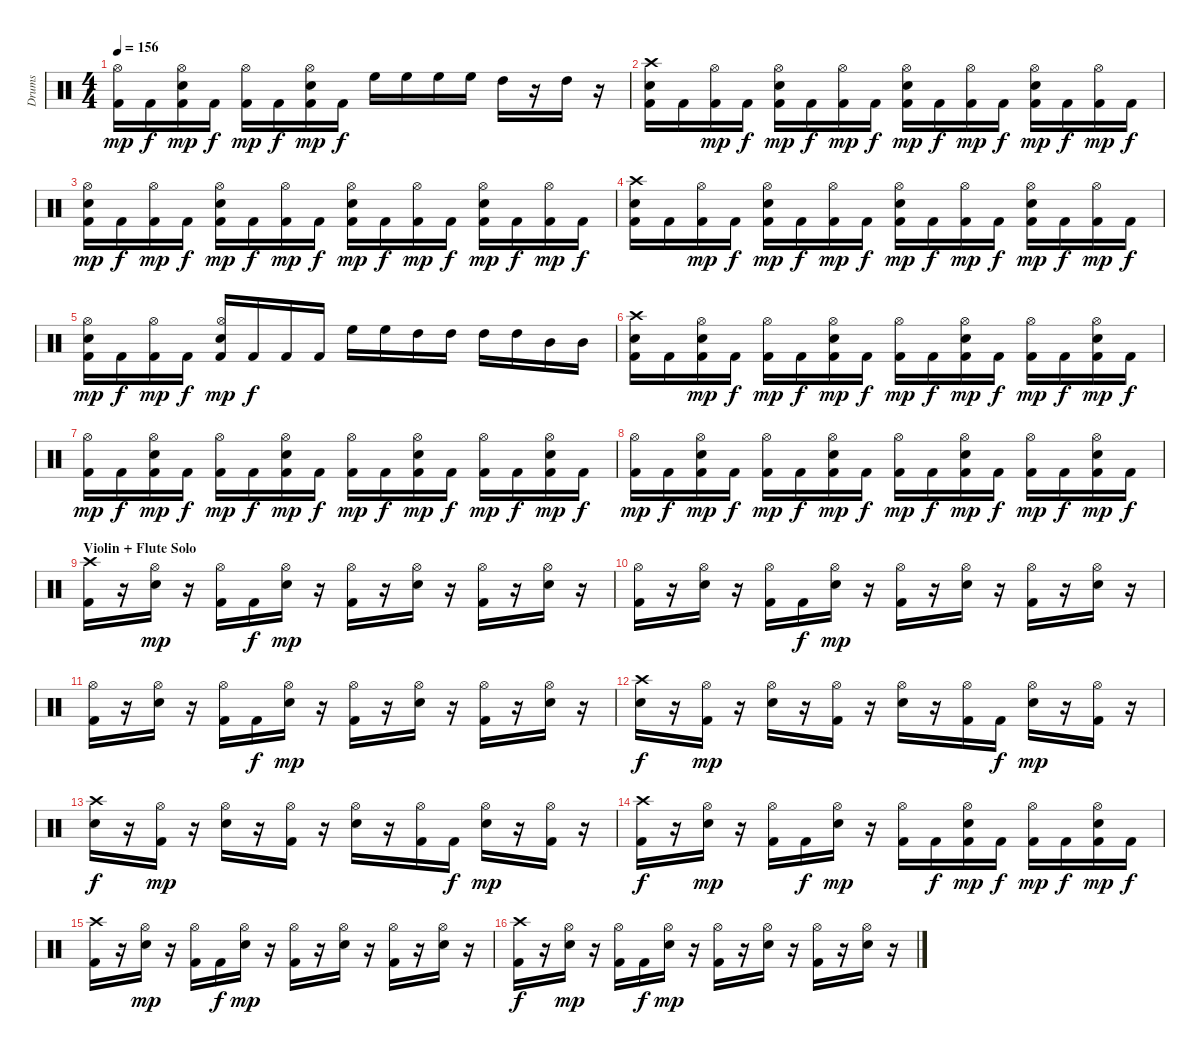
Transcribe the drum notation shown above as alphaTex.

\track ("Drums" "Drums") {instrument percussion}
\staff {score}
\articulation defaults
\ts (4 4)
\tempo 156
\clef neutral
\ks c
("Kick (hit) 2" "Hi-Hat (open)").16{dy mp} "Kick (hit) 2".16{dy f} ("Snare (hit) 2" "Kick (hit) 2" "Hi-Hat (open)").16{dy mp} "Kick (hit) 2".16{dy f} ("Kick (hit) 2" "Hi-Hat (open)").16{dy mp} "Kick (hit) 2".16{dy f} ("Snare (hit) 2" "Kick (hit) 2" "Hi-Hat (open)").16{dy mp} "Kick (hit) 2".16{dy f} "High Floor Tom (hit)".16 "High Floor Tom (hit)".16 "High Floor Tom (hit)".16 "High Floor Tom (hit)".16 "High Tom (hit)".16 r.16 "High Tom (hit)".16 r.16 |
("Snare (hit) 2" "Kick (hit) 2" "Crash high (hit)").16 "Kick (hit) 2".16 ("Kick (hit) 2" "Hi-Hat (open)").16{dy mp} "Kick (hit) 2".16{dy f} ("Snare (hit) 2" "Kick (hit) 2" "Hi-Hat (open)").16{dy mp} "Kick (hit) 2".16{dy f} ("Kick (hit) 2" "Hi-Hat (open)").16{dy mp} "Kick (hit) 2".16{dy f} ("Snare (hit) 2" "Kick (hit) 2" "Hi-Hat (open)").16{dy mp} "Kick (hit) 2".16{dy f} ("Kick (hit) 2" "Hi-Hat (open)").16{dy mp} "Kick (hit) 2".16{dy f} ("Snare (hit) 2" "Kick (hit) 2" "Hi-Hat (open)").16{dy mp} "Kick (hit) 2".16{dy f} ("Kick (hit) 2" "Hi-Hat (open)").16{dy mp} "Kick (hit) 2".16{dy f} |
("Snare (hit) 2" "Kick (hit) 2" "Hi-Hat (open)").16{dy mp} "Kick (hit) 2".16{dy f} ("Kick (hit) 2" "Hi-Hat (open)").16{dy mp} "Kick (hit) 2".16{dy f} ("Snare (hit) 2" "Kick (hit) 2" "Hi-Hat (open)").16{dy mp} "Kick (hit) 2".16{dy f} ("Kick (hit) 2" "Hi-Hat (open)").16{dy mp} "Kick (hit) 2".16{dy f} ("Snare (hit) 2" "Kick (hit) 2" "Hi-Hat (open)").16{dy mp} "Kick (hit) 2".16{dy f} ("Kick (hit) 2" "Hi-Hat (open)").16{dy mp} "Kick (hit) 2".16{dy f} ("Snare (hit) 2" "Kick (hit) 2" "Hi-Hat (open)").16{dy mp} "Kick (hit) 2".16{dy f} ("Kick (hit) 2" "Hi-Hat (open)").16{dy mp} "Kick (hit) 2".16{dy f} |
("Snare (hit) 2" "Kick (hit) 2" "Crash high (hit)").16 "Kick (hit) 2".16 ("Kick (hit) 2" "Hi-Hat (open)").16{dy mp} "Kick (hit) 2".16{dy f} ("Snare (hit) 2" "Kick (hit) 2" "Hi-Hat (open)").16{dy mp} "Kick (hit) 2".16{dy f} ("Kick (hit) 2" "Hi-Hat (open)").16{dy mp} "Kick (hit) 2".16{dy f} ("Snare (hit) 2" "Kick (hit) 2" "Hi-Hat (open)").16{dy mp} "Kick (hit) 2".16{dy f} ("Kick (hit) 2" "Hi-Hat (open)").16{dy mp} "Kick (hit) 2".16{dy f} ("Snare (hit) 2" "Kick (hit) 2" "Hi-Hat (open)").16{dy mp} "Kick (hit) 2".16{dy f} ("Kick (hit) 2" "Hi-Hat (open)").16{dy mp} "Kick (hit) 2".16{dy f} |
("Snare (hit) 2" "Kick (hit) 2" "Hi-Hat (open)").16{dy mp} "Kick (hit) 2".16{dy f} ("Kick (hit) 2" "Hi-Hat (open)").16{dy mp} "Kick (hit) 2".16{dy f} ("Snare (hit) 2" "Kick (hit) 2" "Hi-Hat (open)").16{dy mp} "Kick (hit) 2".16{dy f} "Kick (hit) 2".16 "Kick (hit) 2".16 "High Floor Tom (hit)".16 "High Floor Tom (hit)".16 "High Tom (hit)".16 "High Tom (hit)".16 "High Tom (hit)".16 "High Tom (hit)".16 "Mid Tom (hit)".16 "Mid Tom (hit)".16 |
("Snare (hit) 2" "Kick (hit) 2" "Crash high (hit)").16 "Kick (hit) 2".16 ("Snare (hit) 2" "Kick (hit) 2" "Hi-Hat (open)").16{dy mp} "Kick (hit) 2".16{dy f} ("Kick (hit) 2" "Hi-Hat (open)").16{dy mp} "Kick (hit) 2".16{dy f} ("Snare (hit) 2" "Kick (hit) 2" "Hi-Hat (open)").16{dy mp} "Kick (hit) 2".16{dy f} ("Kick (hit) 2" "Hi-Hat (open)").16{dy mp} "Kick (hit) 2".16{dy f} ("Snare (hit) 2" "Kick (hit) 2" "Hi-Hat (open)").16{dy mp} "Kick (hit) 2".16{dy f} ("Kick (hit) 2" "Hi-Hat (open)").16{dy mp} "Kick (hit) 2".16{dy f} ("Snare (hit) 2" "Kick (hit) 2" "Hi-Hat (open)").16{dy mp} "Kick (hit) 2".16{dy f} |
("Kick (hit) 2" "Hi-Hat (open)").16{dy mp} "Kick (hit) 2".16{dy f} ("Snare (hit) 2" "Kick (hit) 2" "Hi-Hat (open)").16{dy mp} "Kick (hit) 2".16{dy f} ("Kick (hit) 2" "Hi-Hat (open)").16{dy mp} "Kick (hit) 2".16{dy f} ("Snare (hit) 2" "Kick (hit) 2" "Hi-Hat (open)").16{dy mp} "Kick (hit) 2".16{dy f} ("Kick (hit) 2" "Hi-Hat (open)").16{dy mp} "Kick (hit) 2".16{dy f} ("Snare (hit) 2" "Kick (hit) 2" "Hi-Hat (open)").16{dy mp} "Kick (hit) 2".16{dy f} ("Kick (hit) 2" "Hi-Hat (open)").16{dy mp} "Kick (hit) 2".16{dy f} ("Snare (hit) 2" "Kick (hit) 2" "Hi-Hat (open)").16{dy mp} "Kick (hit) 2".16{dy f} |
("Kick (hit) 2" "Hi-Hat (open)").16{dy mp} "Kick (hit) 2".16{dy f} ("Snare (hit) 2" "Kick (hit) 2" "Hi-Hat (open)").16{dy mp} "Kick (hit) 2".16{dy f} ("Kick (hit) 2" "Hi-Hat (open)").16{dy mp} "Kick (hit) 2".16{dy f} ("Snare (hit) 2" "Kick (hit) 2" "Hi-Hat (open)").16{dy mp} "Kick (hit) 2".16{dy f} ("Kick (hit) 2" "Hi-Hat (open)").16{dy mp} "Kick (hit) 2".16{dy f} ("Snare (hit) 2" "Kick (hit) 2" "Hi-Hat (open)").16{dy mp} "Kick (hit) 2".16{dy f} ("Kick (hit) 2" "Hi-Hat (open)").16{dy mp} "Kick (hit) 2".16{dy f} ("Snare (hit) 2" "Kick (hit) 2" "Hi-Hat (open)").16{dy mp} "Kick (hit) 2".16{dy f} |
\section ("" "Violin + Flute Solo")
("Kick (hit) 2" "Crash high (hit)").16 r.16 ("Snare (hit) 2" "Hi-Hat (open)").16{dy mp} r.16 ("Kick (hit) 2" "Hi-Hat (open)").16 "Kick (hit) 2".16{dy f} ("Snare (hit) 2" "Hi-Hat (open)").16{dy mp} r.16 ("Kick (hit) 2" "Hi-Hat (open)").16 r.16 ("Snare (hit) 2" "Hi-Hat (open)").16 r.16 ("Kick (hit) 2" "Hi-Hat (open)").16 r.16 ("Snare (hit) 2" "Hi-Hat (open)").16 r.16 |
("Kick (hit) 2" "Hi-Hat (open)").16 r.16 ("Snare (hit) 2" "Hi-Hat (open)").16 r.16 ("Kick (hit) 2" "Hi-Hat (open)").16 "Kick (hit) 2".16{dy f} ("Snare (hit) 2" "Hi-Hat (open)").16{dy mp} r.16 ("Kick (hit) 2" "Hi-Hat (open)").16 r.16 ("Snare (hit) 2" "Hi-Hat (open)").16 r.16 ("Kick (hit) 2" "Hi-Hat (open)").16 r.16 ("Snare (hit) 2" "Hi-Hat (open)").16 r.16 |
("Kick (hit) 2" "Hi-Hat (open)").16 r.16 ("Snare (hit) 2" "Hi-Hat (open)").16 r.16 ("Kick (hit) 2" "Hi-Hat (open)").16 "Kick (hit) 2".16{dy f} ("Snare (hit) 2" "Hi-Hat (open)").16{dy mp} r.16 ("Kick (hit) 2" "Hi-Hat (open)").16 r.16 ("Snare (hit) 2" "Hi-Hat (open)").16 r.16 ("Kick (hit) 2" "Hi-Hat (open)").16 r.16 ("Snare (hit) 2" "Hi-Hat (open)").16 r.16 |
("Snare (hit) 2" "Crash high (hit)").16{dy f} r.16 ("Kick (hit) 2" "Hi-Hat (open)").16{dy mp} r.16 ("Snare (hit) 2" "Hi-Hat (open)").16 r.16 ("Kick (hit) 2" "Hi-Hat (open)").16 r.16 ("Snare (hit) 2" "Hi-Hat (open)").16 r.16 ("Kick (hit) 2" "Hi-Hat (open)").16 "Kick (hit) 2".16{dy f} ("Snare (hit) 2" "Hi-Hat (open)").16{dy mp} r.16 ("Kick (hit) 2" "Hi-Hat (open)").16 r.16 |
("Snare (hit) 2" "Crash high (hit)").16{dy f} r.16 ("Kick (hit) 2" "Hi-Hat (open)").16{dy mp} r.16 ("Snare (hit) 2" "Hi-Hat (open)").16 r.16 ("Kick (hit) 2" "Hi-Hat (open)").16 r.16 ("Snare (hit) 2" "Hi-Hat (open)").16 r.16 ("Kick (hit) 2" "Hi-Hat (open)").16 "Kick (hit) 2".16{dy f} ("Snare (hit) 2" "Hi-Hat (open)").16{dy mp} r.16 ("Kick (hit) 2" "Hi-Hat (open)").16 r.16 |
("Kick (hit) 2" "Crash high (hit)").16{dy f} r.16 ("Snare (hit) 2" "Hi-Hat (open)").16{dy mp} r.16 ("Kick (hit) 2" "Hi-Hat (open)").16 "Kick (hit) 2".16{dy f} ("Snare (hit) 2" "Hi-Hat (open)").16{dy mp} r.16 ("Kick (hit) 2" "Hi-Hat (open)").16 "Kick (hit) 2".16{dy f} ("Kick (hit) 2" "Snare (hit) 2" "Hi-Hat (open)").16{dy mp} "Kick (hit) 2".16{dy f} ("Kick (hit) 2" "Hi-Hat (open)").16{dy mp} "Kick (hit) 2".16{dy f} ("Kick (hit) 2" "Snare (hit) 2" "Hi-Hat (open)").16{dy mp} "Kick (hit) 2".16{dy f} |
("Kick (hit) 2" "Crash high (hit)").16 r.16 ("Snare (hit) 2" "Hi-Hat (open)").16{dy mp} r.16 ("Kick (hit) 2" "Hi-Hat (open)").16 "Kick (hit) 2".16{dy f} ("Snare (hit) 2" "Hi-Hat (open)").16{dy mp} r.16 ("Kick (hit) 2" "Hi-Hat (open)").16 r.16 ("Snare (hit) 2" "Hi-Hat (open)").16 r.16 ("Kick (hit) 2" "Hi-Hat (open)").16 r.16 ("Snare (hit) 2" "Hi-Hat (open)").16 r.16 |
("Kick (hit) 2" "Crash high (hit)").16{dy f} r.16 ("Snare (hit) 2" "Hi-Hat (open)").16{dy mp} r.16 ("Kick (hit) 2" "Hi-Hat (open)").16 "Kick (hit) 2".16{dy f} ("Snare (hit) 2" "Hi-Hat (open)").16{dy mp} r.16 ("Kick (hit) 2" "Hi-Hat (open)").16 r.16 ("Snare (hit) 2" "Hi-Hat (open)").16 r.16 ("Kick (hit) 2" "Hi-Hat (open)").16 r.16 ("Snare (hit) 2" "Hi-Hat (open)").16 r.16
